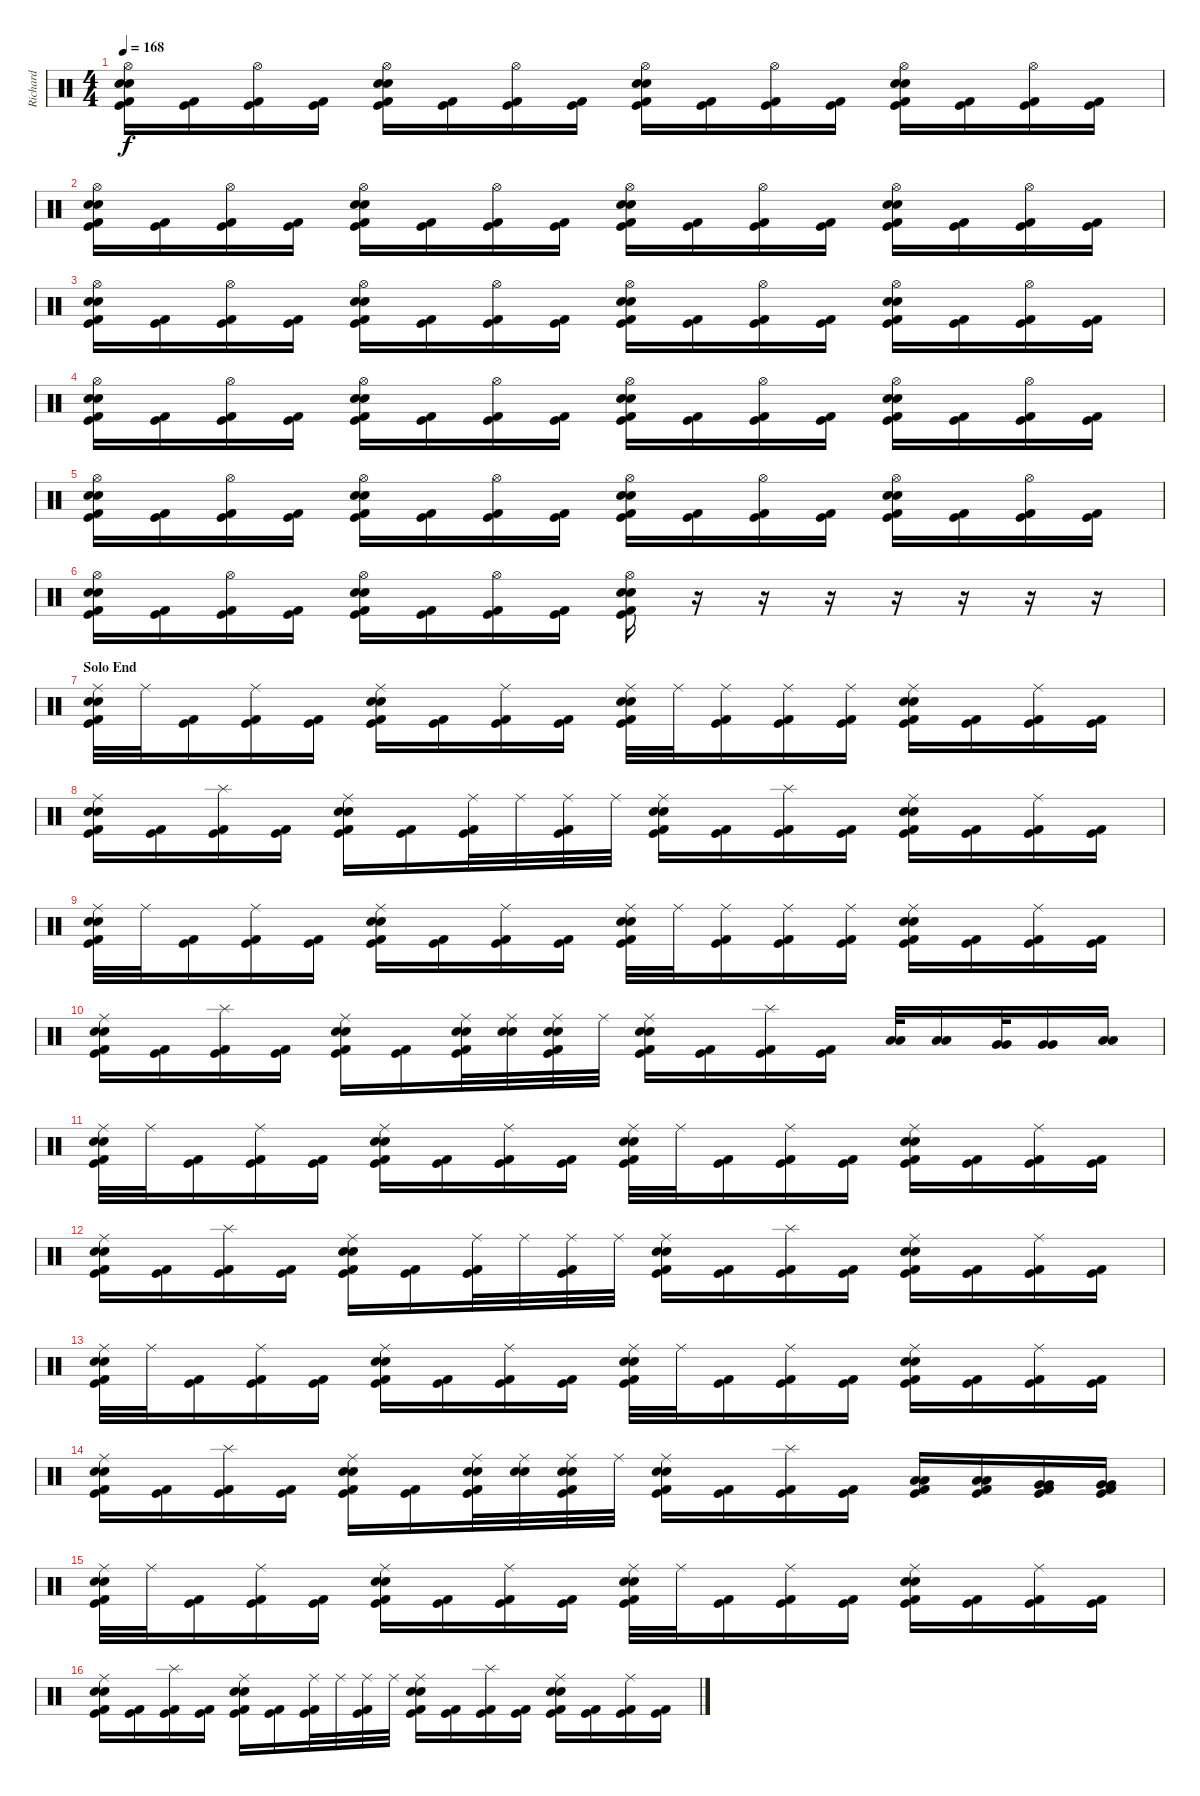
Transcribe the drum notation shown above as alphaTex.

\track ("Richard" "Richard") {instrument percussion}
\staff {score}
\articulation defaults
\ts (4 4)
\tempo 168
\clef neutral
\ks c
("Hi-Hat (open)" "Snare (hit) 2" "Electric Snare (hit)" "Kick (hit)" "Kick (hit) 2").16{dy f} ("Kick (hit)" "Kick (hit) 2").16 ("Hi-Hat (open)" "Kick (hit)" "Kick (hit) 2").16 ("Kick (hit)" "Kick (hit) 2").16 ("Hi-Hat (open)" "Snare (hit) 2" "Electric Snare (hit)" "Kick (hit)" "Kick (hit) 2").16 ("Kick (hit)" "Kick (hit) 2").16 ("Hi-Hat (open)" "Kick (hit)" "Kick (hit) 2").16 ("Kick (hit)" "Kick (hit) 2").16 ("Hi-Hat (open)" "Snare (hit) 2" "Electric Snare (hit)" "Kick (hit)" "Kick (hit) 2").16 ("Kick (hit)" "Kick (hit) 2").16 ("Hi-Hat (open)" "Kick (hit)" "Kick (hit) 2").16 ("Kick (hit)" "Kick (hit) 2").16 ("Hi-Hat (open)" "Snare (hit) 2" "Electric Snare (hit)" "Kick (hit)" "Kick (hit) 2").16 ("Kick (hit)" "Kick (hit) 2").16 ("Hi-Hat (open)" "Kick (hit)" "Kick (hit) 2").16 ("Kick (hit)" "Kick (hit) 2").16 |
("Hi-Hat (open)" "Snare (hit) 2" "Electric Snare (hit)" "Kick (hit)" "Kick (hit) 2").16 ("Kick (hit)" "Kick (hit) 2").16 ("Hi-Hat (open)" "Kick (hit)" "Kick (hit) 2").16 ("Kick (hit)" "Kick (hit) 2").16 ("Hi-Hat (open)" "Snare (hit) 2" "Electric Snare (hit)" "Kick (hit)" "Kick (hit) 2").16 ("Kick (hit)" "Kick (hit) 2").16 ("Hi-Hat (open)" "Kick (hit)" "Kick (hit) 2").16 ("Kick (hit)" "Kick (hit) 2").16 ("Hi-Hat (open)" "Snare (hit) 2" "Electric Snare (hit)" "Kick (hit)" "Kick (hit) 2").16 ("Kick (hit)" "Kick (hit) 2").16 ("Hi-Hat (open)" "Kick (hit)" "Kick (hit) 2").16 ("Kick (hit)" "Kick (hit) 2").16 ("Hi-Hat (open)" "Snare (hit) 2" "Electric Snare (hit)" "Kick (hit)" "Kick (hit) 2").16 ("Kick (hit)" "Kick (hit) 2").16 ("Hi-Hat (open)" "Kick (hit)" "Kick (hit) 2").16 ("Kick (hit)" "Kick (hit) 2").16 |
("Hi-Hat (open)" "Snare (hit) 2" "Electric Snare (hit)" "Kick (hit)" "Kick (hit) 2").16 ("Kick (hit)" "Kick (hit) 2").16 ("Hi-Hat (open)" "Kick (hit)" "Kick (hit) 2").16 ("Kick (hit)" "Kick (hit) 2").16 ("Hi-Hat (open)" "Snare (hit) 2" "Electric Snare (hit)" "Kick (hit)" "Kick (hit) 2").16 ("Kick (hit)" "Kick (hit) 2").16 ("Hi-Hat (open)" "Kick (hit)" "Kick (hit) 2").16 ("Kick (hit)" "Kick (hit) 2").16 ("Hi-Hat (open)" "Snare (hit) 2" "Electric Snare (hit)" "Kick (hit)" "Kick (hit) 2").16 ("Kick (hit)" "Kick (hit) 2").16 ("Hi-Hat (open)" "Kick (hit)" "Kick (hit) 2").16 ("Kick (hit)" "Kick (hit) 2").16 ("Hi-Hat (open)" "Snare (hit) 2" "Electric Snare (hit)" "Kick (hit)" "Kick (hit) 2").16 ("Kick (hit)" "Kick (hit) 2").16 ("Hi-Hat (open)" "Kick (hit)" "Kick (hit) 2").16 ("Kick (hit)" "Kick (hit) 2").16 |
("Hi-Hat (open)" "Snare (hit) 2" "Electric Snare (hit)" "Kick (hit)" "Kick (hit) 2").16 ("Kick (hit)" "Kick (hit) 2").16 ("Hi-Hat (open)" "Kick (hit)" "Kick (hit) 2").16 ("Kick (hit)" "Kick (hit) 2").16 ("Hi-Hat (open)" "Snare (hit) 2" "Electric Snare (hit)" "Kick (hit)" "Kick (hit) 2").16 ("Kick (hit)" "Kick (hit) 2").16 ("Hi-Hat (open)" "Kick (hit)" "Kick (hit) 2").16 ("Kick (hit)" "Kick (hit) 2").16 ("Hi-Hat (open)" "Snare (hit) 2" "Electric Snare (hit)" "Kick (hit)" "Kick (hit) 2").16 ("Kick (hit)" "Kick (hit) 2").16 ("Hi-Hat (open)" "Kick (hit)" "Kick (hit) 2").16 ("Kick (hit)" "Kick (hit) 2").16 ("Hi-Hat (open)" "Snare (hit) 2" "Electric Snare (hit)" "Kick (hit)" "Kick (hit) 2").16 ("Kick (hit)" "Kick (hit) 2").16 ("Hi-Hat (open)" "Kick (hit)" "Kick (hit) 2").16 ("Kick (hit)" "Kick (hit) 2").16 |
("Hi-Hat (open)" "Snare (hit) 2" "Electric Snare (hit)" "Kick (hit)" "Kick (hit) 2").16 ("Kick (hit)" "Kick (hit) 2").16 ("Hi-Hat (open)" "Kick (hit)" "Kick (hit) 2").16 ("Kick (hit)" "Kick (hit) 2").16 ("Hi-Hat (open)" "Snare (hit) 2" "Electric Snare (hit)" "Kick (hit)" "Kick (hit) 2").16 ("Kick (hit)" "Kick (hit) 2").16 ("Hi-Hat (open)" "Kick (hit)" "Kick (hit) 2").16 ("Kick (hit)" "Kick (hit) 2").16 ("Hi-Hat (open)" "Snare (hit) 2" "Electric Snare (hit)" "Kick (hit)" "Kick (hit) 2").16 ("Kick (hit)" "Kick (hit) 2").16 ("Hi-Hat (open)" "Kick (hit)" "Kick (hit) 2").16 ("Kick (hit)" "Kick (hit) 2").16 ("Hi-Hat (open)" "Snare (hit) 2" "Electric Snare (hit)" "Kick (hit)" "Kick (hit) 2").16 ("Kick (hit)" "Kick (hit) 2").16 ("Hi-Hat (open)" "Kick (hit)" "Kick (hit) 2").16 ("Kick (hit)" "Kick (hit) 2").16 |
("Hi-Hat (open)" "Snare (hit) 2" "Electric Snare (hit)" "Kick (hit)" "Kick (hit) 2").16 ("Kick (hit)" "Kick (hit) 2").16 ("Hi-Hat (open)" "Kick (hit)" "Kick (hit) 2").16 ("Kick (hit)" "Kick (hit) 2").16 ("Hi-Hat (open)" "Snare (hit) 2" "Electric Snare (hit)" "Kick (hit)" "Kick (hit) 2").16 ("Kick (hit)" "Kick (hit) 2").16 ("Hi-Hat (open)" "Kick (hit)" "Kick (hit) 2").16 ("Kick (hit)" "Kick (hit) 2").16 ("Hi-Hat (open)" "Snare (hit) 2" "Electric Snare (hit)" "Kick (hit)" "Kick (hit) 2").16 r.16 r.16 r.16 r.16 r.16 r.16 r.16 |
\section ("" "Solo End")
("Ride (middle)" "Snare (hit) 2" "Electric Snare (hit)" "Kick (hit)" "Kick (hit) 2").32 "Ride (middle)".32 ("Kick (hit)" "Kick (hit) 2").16 ("Ride (middle)" "Kick (hit)" "Kick (hit) 2").16 ("Kick (hit)" "Kick (hit) 2").16 ("Ride (middle)" "Snare (hit) 2" "Electric Snare (hit)" "Kick (hit)" "Kick (hit) 2").16 ("Kick (hit)" "Kick (hit) 2").16 ("Ride (middle)" "Kick (hit)" "Kick (hit) 2").16 ("Kick (hit)" "Kick (hit) 2").16 ("Ride (middle)" "Snare (hit) 2" "Electric Snare (hit)" "Kick (hit)" "Kick (hit) 2").32 "Ride (middle)".32 ("Ride (middle)" "Kick (hit)" "Kick (hit) 2").16 ("Ride (middle)" "Kick (hit)" "Kick (hit) 2").16 ("Ride (middle)" "Kick (hit)" "Kick (hit) 2").16 ("Ride (middle)" "Snare (hit) 2" "Electric Snare (hit)" "Kick (hit)" "Kick (hit) 2").16 ("Kick (hit)" "Kick (hit) 2").16 ("Ride (middle)" "Kick (hit)" "Kick (hit) 2").16 ("Kick (hit)" "Kick (hit) 2").16 |
("Ride (middle)" "Snare (hit) 2" "Electric Snare (hit)" "Kick (hit)" "Kick (hit) 2").16 ("Kick (hit)" "Kick (hit) 2").16 ("Splash (hit)" "Kick (hit)" "Kick (hit) 2").16 ("Kick (hit)" "Kick (hit) 2").16 ("Ride (middle)" "Snare (hit) 2" "Electric Snare (hit)" "Kick (hit)" "Kick (hit) 2").16 ("Kick (hit)" "Kick (hit) 2").16 ("Ride (middle)" "Kick (hit)" "Kick (hit) 2").32 "Ride (middle)".32 ("Ride (middle)" "Kick (hit)" "Kick (hit) 2").32 "Ride (middle)".32 ("Ride (middle)" "Snare (hit) 2" "Electric Snare (hit)" "Kick (hit)" "Kick (hit) 2").16 ("Kick (hit)" "Kick (hit) 2").16 ("Splash (hit)" "Kick (hit)" "Kick (hit) 2").16 ("Kick (hit)" "Kick (hit) 2").16 ("Ride (middle)" "Snare (hit) 2" "Electric Snare (hit)" "Kick (hit)" "Kick (hit) 2").16 ("Kick (hit)" "Kick (hit) 2").16 ("Ride (middle)" "Kick (hit)" "Kick (hit) 2").16 ("Kick (hit)" "Kick (hit) 2").16 |
("Ride (middle)" "Snare (hit) 2" "Electric Snare (hit)" "Kick (hit)" "Kick (hit) 2").32 "Ride (middle)".32 ("Kick (hit)" "Kick (hit) 2").16 ("Ride (middle)" "Kick (hit)" "Kick (hit) 2").16 ("Kick (hit)" "Kick (hit) 2").16 ("Ride (middle)" "Snare (hit) 2" "Electric Snare (hit)" "Kick (hit)" "Kick (hit) 2").16 ("Kick (hit)" "Kick (hit) 2").16 ("Ride (middle)" "Kick (hit)" "Kick (hit) 2").16 ("Kick (hit)" "Kick (hit) 2").16 ("Ride (middle)" "Snare (hit) 2" "Electric Snare (hit)" "Kick (hit)" "Kick (hit) 2").32 "Ride (middle)".32 ("Ride (middle)" "Kick (hit)" "Kick (hit) 2").16 ("Ride (middle)" "Kick (hit)" "Kick (hit) 2").16 ("Ride (middle)" "Kick (hit)" "Kick (hit) 2").16 ("Ride (middle)" "Snare (hit) 2" "Electric Snare (hit)" "Kick (hit)" "Kick (hit) 2").16 ("Kick (hit)" "Kick (hit) 2").16 ("Ride (middle)" "Kick (hit)" "Kick (hit) 2").16 ("Kick (hit)" "Kick (hit) 2").16 |
("Ride (middle)" "Snare (hit) 2" "Electric Snare (hit)" "Kick (hit)" "Kick (hit) 2").16 ("Kick (hit)" "Kick (hit) 2").16 ("Splash (hit)" "Kick (hit)" "Kick (hit) 2").16 ("Kick (hit)" "Kick (hit) 2").16 ("Ride (middle)" "Snare (hit) 2" "Electric Snare (hit)" "Kick (hit)" "Kick (hit) 2").16 ("Kick (hit)" "Kick (hit) 2").16 ("Ride (middle)" "Snare (hit) 2" "Electric Snare (hit)" "Kick (hit)" "Kick (hit) 2").32 ("Ride (middle)" "Snare (hit) 2" "Electric Snare (hit)").32 ("Ride (middle)" "Snare (hit) 2" "Electric Snare (hit)" "Kick (hit)" "Kick (hit) 2").32 "Ride (middle)".32 ("Ride (middle)" "Snare (hit) 2" "Electric Snare (hit)" "Kick (hit)" "Kick (hit) 2").16 ("Kick (hit)" "Kick (hit) 2").16 ("Splash (hit)" "Kick (hit)" "Kick (hit) 2").16 ("Kick (hit)" "Kick (hit) 2").16 ("Low Tom (hit)" "Low Tom (hit)").32 ("Low Tom (hit)" "Low Tom (hit)").16 ("Very Low Tom (hit)" "Very Low Tom (hit)").32 ("Very Low Tom (hit)" "Very Low Tom (hit)").16 ("Low Floor Tom (hit)" "Low Floor Tom (hit)").16 |
("Ride (middle)" "Snare (hit) 2" "Electric Snare (hit)" "Kick (hit)" "Kick (hit) 2").32 "Ride (middle)".32 ("Kick (hit)" "Kick (hit) 2").16 ("Ride (middle)" "Kick (hit)" "Kick (hit) 2").16 ("Kick (hit)" "Kick (hit) 2").16 ("Ride (middle)" "Snare (hit) 2" "Electric Snare (hit)" "Kick (hit)" "Kick (hit) 2").16 ("Kick (hit)" "Kick (hit) 2").16 ("Ride (middle)" "Kick (hit)" "Kick (hit) 2").16 ("Kick (hit)" "Kick (hit) 2").16 ("Ride (middle)" "Snare (hit) 2" "Electric Snare (hit)" "Kick (hit)" "Kick (hit) 2").32 "Ride (middle)".32 ("Kick (hit)" "Kick (hit) 2").16 ("Ride (middle)" "Kick (hit)" "Kick (hit) 2").16 ("Kick (hit)" "Kick (hit) 2").16 ("Ride (middle)" "Snare (hit) 2" "Electric Snare (hit)" "Kick (hit)" "Kick (hit) 2").16 ("Kick (hit)" "Kick (hit) 2").16 ("Ride (middle)" "Kick (hit)" "Kick (hit) 2").16 ("Kick (hit)" "Kick (hit) 2").16 |
("Ride (middle)" "Snare (hit) 2" "Electric Snare (hit)" "Kick (hit)" "Kick (hit) 2").16 ("Kick (hit)" "Kick (hit) 2").16 ("Splash (hit)" "Kick (hit)" "Kick (hit) 2").16 ("Kick (hit)" "Kick (hit) 2").16 ("Ride (middle)" "Snare (hit) 2" "Electric Snare (hit)" "Kick (hit)" "Kick (hit) 2").16 ("Kick (hit)" "Kick (hit) 2").16 ("Ride (middle)" "Kick (hit)" "Kick (hit) 2").32 "Ride (middle)".32 ("Ride (middle)" "Kick (hit)" "Kick (hit) 2").32 "Ride (middle)".32 ("Ride (middle)" "Snare (hit) 2" "Electric Snare (hit)" "Kick (hit)" "Kick (hit) 2").16 ("Kick (hit)" "Kick (hit) 2").16 ("Splash (hit)" "Kick (hit)" "Kick (hit) 2").16 ("Kick (hit)" "Kick (hit) 2").16 ("Ride (middle)" "Snare (hit) 2" "Electric Snare (hit)" "Kick (hit)" "Kick (hit) 2").16 ("Kick (hit)" "Kick (hit) 2").16 ("Ride (middle)" "Kick (hit)" "Kick (hit) 2").16 ("Kick (hit)" "Kick (hit) 2").16 |
("Ride (middle)" "Snare (hit) 2" "Electric Snare (hit)" "Kick (hit)" "Kick (hit) 2").32 "Ride (middle)".32 ("Kick (hit)" "Kick (hit) 2").16 ("Ride (middle)" "Kick (hit)" "Kick (hit) 2").16 ("Kick (hit)" "Kick (hit) 2").16 ("Ride (middle)" "Snare (hit) 2" "Electric Snare (hit)" "Kick (hit)" "Kick (hit) 2").16 ("Kick (hit)" "Kick (hit) 2").16 ("Ride (middle)" "Kick (hit)" "Kick (hit) 2").16 ("Kick (hit)" "Kick (hit) 2").16 ("Ride (middle)" "Snare (hit) 2" "Electric Snare (hit)" "Kick (hit)" "Kick (hit) 2").32 "Ride (middle)".32 ("Kick (hit)" "Kick (hit) 2").16 ("Ride (middle)" "Kick (hit)" "Kick (hit) 2").16 ("Kick (hit)" "Kick (hit) 2").16 ("Ride (middle)" "Snare (hit) 2" "Electric Snare (hit)" "Kick (hit)" "Kick (hit) 2").16 ("Kick (hit)" "Kick (hit) 2").16 ("Ride (middle)" "Kick (hit)" "Kick (hit) 2").16 ("Kick (hit)" "Kick (hit) 2").16 |
("Ride (middle)" "Snare (hit) 2" "Electric Snare (hit)" "Kick (hit)" "Kick (hit) 2").16 ("Kick (hit)" "Kick (hit) 2").16 ("Splash (hit)" "Kick (hit)" "Kick (hit) 2").16 ("Kick (hit)" "Kick (hit) 2").16 ("Ride (middle)" "Snare (hit) 2" "Electric Snare (hit)" "Kick (hit)" "Kick (hit) 2").16 ("Kick (hit)" "Kick (hit) 2").16 ("Ride (middle)" "Snare (hit) 2" "Electric Snare (hit)" "Kick (hit)" "Kick (hit) 2").32 ("Ride (middle)" "Snare (hit) 2" "Electric Snare (hit)").32 ("Ride (middle)" "Snare (hit) 2" "Electric Snare (hit)" "Kick (hit)" "Kick (hit) 2").32 "Ride (middle)".32 ("Ride (middle)" "Snare (hit) 2" "Electric Snare (hit)" "Kick (hit)" "Kick (hit) 2").16 ("Kick (hit)" "Kick (hit) 2").16 ("Splash (hit)" "Kick (hit)" "Kick (hit) 2").16 ("Kick (hit)" "Kick (hit) 2").16 ("Low Tom (hit)" "Low Tom (hit)" "Kick (hit)" "Kick (hit) 2").16 ("Low Tom (hit)" "Low Tom (hit)" "Kick (hit)" "Kick (hit) 2").16 ("Very Low Tom (hit)" "Very Low Tom (hit)" "Kick (hit)" "Kick (hit) 2").16 ("Very Low Tom (hit)" "Very Low Tom (hit)" "Kick (hit)" "Kick (hit) 2").16 |
("Ride (middle)" "Snare (hit) 2" "Electric Snare (hit)" "Kick (hit)" "Kick (hit) 2").32 "Ride (middle)".32 ("Kick (hit)" "Kick (hit) 2").16 ("Ride (middle)" "Kick (hit)" "Kick (hit) 2").16 ("Kick (hit)" "Kick (hit) 2").16 ("Ride (middle)" "Snare (hit) 2" "Electric Snare (hit)" "Kick (hit)" "Kick (hit) 2").16 ("Kick (hit)" "Kick (hit) 2").16 ("Ride (middle)" "Kick (hit)" "Kick (hit) 2").16 ("Kick (hit)" "Kick (hit) 2").16 ("Ride (middle)" "Snare (hit) 2" "Electric Snare (hit)" "Kick (hit)" "Kick (hit) 2").32 "Ride (middle)".32 ("Kick (hit)" "Kick (hit) 2").16 ("Ride (middle)" "Kick (hit)" "Kick (hit) 2").16 ("Kick (hit)" "Kick (hit) 2").16 ("Ride (middle)" "Snare (hit) 2" "Electric Snare (hit)" "Kick (hit)" "Kick (hit) 2").16 ("Kick (hit)" "Kick (hit) 2").16 ("Ride (middle)" "Kick (hit)" "Kick (hit) 2").16 ("Kick (hit)" "Kick (hit) 2").16 |
("Ride (middle)" "Snare (hit) 2" "Electric Snare (hit)" "Kick (hit)" "Kick (hit) 2").16 ("Kick (hit)" "Kick (hit) 2").16 ("Splash (hit)" "Kick (hit)" "Kick (hit) 2").16 ("Kick (hit)" "Kick (hit) 2").16 ("Ride (middle)" "Snare (hit) 2" "Electric Snare (hit)" "Kick (hit)" "Kick (hit) 2").16 ("Kick (hit)" "Kick (hit) 2").16 ("Ride (middle)" "Kick (hit)" "Kick (hit) 2").32 "Ride (middle)".32 ("Ride (middle)" "Kick (hit)" "Kick (hit) 2").32 "Ride (middle)".32 ("Ride (middle)" "Snare (hit) 2" "Electric Snare (hit)" "Kick (hit)" "Kick (hit) 2").16 ("Kick (hit)" "Kick (hit) 2").16 ("Splash (hit)" "Kick (hit)" "Kick (hit) 2").16 ("Kick (hit)" "Kick (hit) 2").16 ("Ride (middle)" "Snare (hit) 2" "Electric Snare (hit)" "Kick (hit)" "Kick (hit) 2").16 ("Kick (hit)" "Kick (hit) 2").16 ("Ride (middle)" "Kick (hit)" "Kick (hit) 2").16 ("Kick (hit)" "Kick (hit) 2").16
